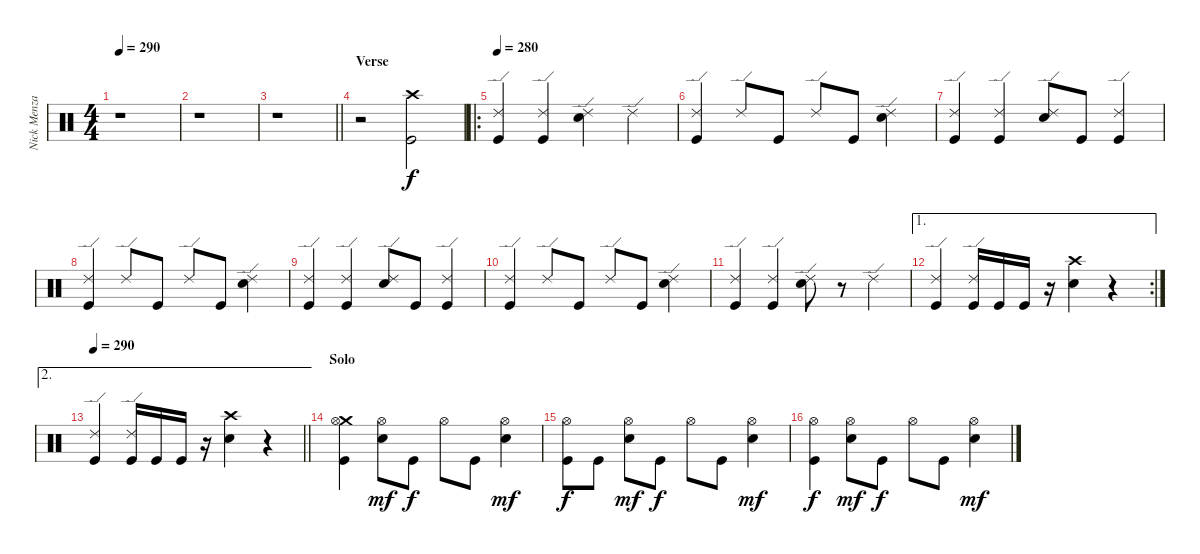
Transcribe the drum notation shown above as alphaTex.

\track ("Nick Menza" "Nick Menza") {instrument percussion}
\staff {score}
\articulation defaults
\ts (4 4)
\tempo 290
\clef neutral
\ks c
r.1{dy f} |
r.1 |
\barLineRight lightlight
r.1 |
\section ("" "Verse")
r.2 ("Crash high (hit)" "Kick (hit)").2 |
\ro
\tempo 280
("Ride (edge) 2" "Kick (hit)").4 ("Ride (edge) 2" "Kick (hit)").4 ("Ride (edge) 2" "Snare (hit) 2").4 "Ride (edge) 2".4 |
("Ride (edge) 2" "Kick (hit)").4 "Ride (edge) 2".8 "Kick (hit)".8 "Ride (edge) 2".8 "Kick (hit)".8 ("Ride (edge) 2" "Snare (hit) 2").4 |
("Ride (edge) 2" "Kick (hit)").4 ("Ride (edge) 2" "Kick (hit)").4 ("Ride (edge) 2" "Snare (hit) 2").8 "Kick (hit)".8 ("Ride (edge) 2" "Kick (hit)").4 |
("Ride (edge) 2" "Kick (hit)").4 "Ride (edge) 2".8 "Kick (hit)".8 "Ride (edge) 2".8 "Kick (hit)".8 ("Ride (edge) 2" "Snare (hit) 2").4 |
("Ride (edge) 2" "Kick (hit)").4 ("Ride (edge) 2" "Kick (hit)").4 ("Ride (edge) 2" "Snare (hit) 2").8 "Kick (hit)".8 ("Ride (edge) 2" "Kick (hit)").4 |
("Ride (edge) 2" "Kick (hit)").4 "Ride (edge) 2".8 "Kick (hit)".8 "Ride (edge) 2".8 "Kick (hit)".8 ("Ride (edge) 2" "Snare (hit) 2").4 |
("Ride (edge) 2" "Kick (hit)").4 ("Ride (edge) 2" "Kick (hit)").4 ("Ride (edge) 2" "Snare (hit) 2").8 r.8 "Ride (edge) 2".4 |
\ae 1
\rc 2
("Ride (edge) 2" "Kick (hit)").4 ("Ride (edge) 2" "Kick (hit)").16 "Kick (hit)".16 "Kick (hit)".16 r.16 ("Crash high (hit)" "Snare (hit) 2").4 r.4 |
\ae 2
\tempo 290
\barLineRight lightlight
("Ride (edge) 2" "Kick (hit)").4 ("Ride (edge) 2" "Kick (hit)").16 "Kick (hit)".16 "Kick (hit)".16 r.16 ("Crash high (hit)" "Snare (hit) 2").4 r.4 |
\section ("" "Solo")
("Crash medium (hit)" "Hi-Hat (open)" "Kick (hit)").4 ("Hi-Hat (open)" "Snare (hit) 2").8{dy mf} "Kick (hit)".8{dy f} "Hi-Hat (open)".8 "Kick (hit)".8 ("Hi-Hat (open)" "Snare (hit) 2").4{dy mf} |
("Hi-Hat (open)" "Kick (hit)").8{dy f} "Kick (hit)".8 ("Hi-Hat (open)" "Snare (hit) 2").8{dy mf} "Kick (hit)".8{dy f} "Hi-Hat (open)".8 "Kick (hit)".8 ("Hi-Hat (open)" "Snare (hit) 2").4{dy mf} |
("Hi-Hat (open)" "Kick (hit)").4{dy f} ("Hi-Hat (open)" "Snare (hit) 2").8{dy mf} "Kick (hit)".8{dy f} "Hi-Hat (open)".8 "Kick (hit)".8 ("Hi-Hat (open)" "Snare (hit) 2").4{dy mf}
